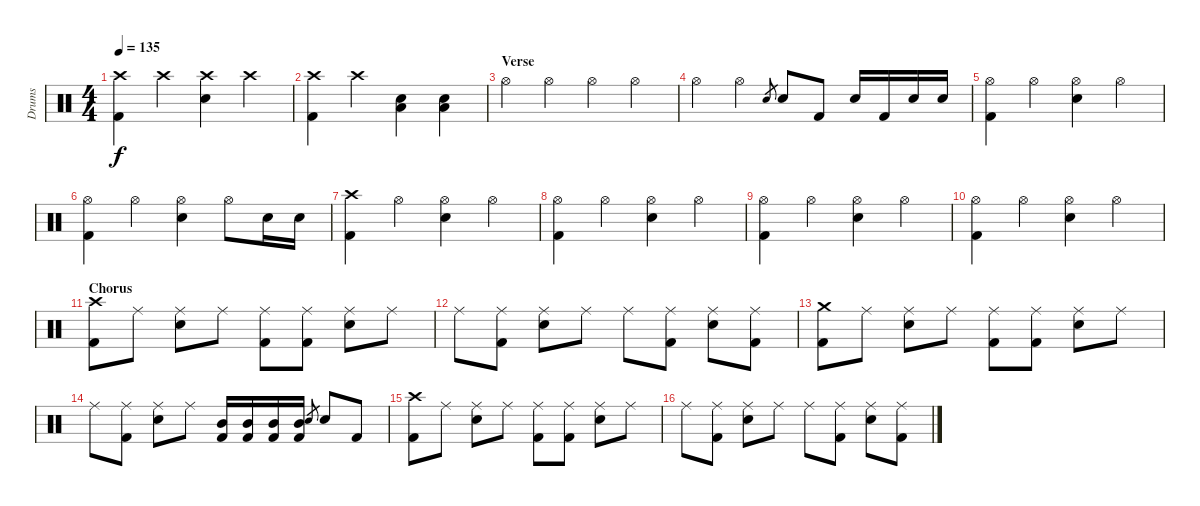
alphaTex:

\track ("Drums" "Drums") {instrument percussion}
\staff {score}
\articulation defaults
\ts (4 4)
\tempo 135
\clef neutral
\ks c
("Crash high (hit)" "Kick (hit) 2").4{dy f} "Crash high (hit)".4 ("Crash high (hit)" "Electric Snare (hit)").4 "Crash high (hit)".4 |
("Crash high (hit)" "Kick (hit) 2").4 "Crash high (hit)".4 ("Electric Snare (hit)" "Low Floor Tom (hit)").4 ("Electric Snare (hit)" "Low Floor Tom (hit)").4 |
\section ("" "Verse")
"Hi-Hat (open)".4 "Hi-Hat (open)".4 "Hi-Hat (open)".4 "Hi-Hat (open)".4 |
"Hi-Hat (open)".4 "Hi-Hat (open)".4 "Electric Snare (hit)".8{gr} "Electric Snare (hit)".8 "Kick (hit) 2".8 "Electric Snare (hit)".16 "Kick (hit) 2".16 "Electric Snare (hit)".16 "Electric Snare (hit)".16 |
("Hi-Hat (open)" "Kick (hit) 2").4 "Hi-Hat (open)".4 ("Hi-Hat (open)" "Electric Snare (hit)").4 "Hi-Hat (open)".4 |
("Hi-Hat (open)" "Kick (hit) 2").4 "Hi-Hat (open)".4 ("Hi-Hat (open)" "Electric Snare (hit)").4 "Hi-Hat (open)".8 "Electric Snare (hit)".16 "Electric Snare (hit)".16 |
("Crash high (hit)" "Kick (hit) 2").4 "Hi-Hat (open)".4 ("Hi-Hat (open)" "Electric Snare (hit)").4 "Hi-Hat (open)".4 |
("Hi-Hat (open)" "Kick (hit) 2").4 "Hi-Hat (open)".4 ("Hi-Hat (open)" "Electric Snare (hit)").4 "Hi-Hat (open)".4 |
("Hi-Hat (open)" "Kick (hit) 2").4 "Hi-Hat (open)".4 ("Hi-Hat (open)" "Electric Snare (hit)").4 "Hi-Hat (open)".4 |
("Hi-Hat (open)" "Kick (hit) 2").4 "Hi-Hat (open)".4 ("Hi-Hat (open)" "Electric Snare (hit)").4 "Hi-Hat (open)".4 |
\section ("" "Chorus")
("Crash high (hit)" "Kick (hit) 2").8 "Ride (middle)".8 ("Ride (middle)" "Electric Snare (hit)").8 "Ride (middle)".8 ("Ride (middle)" "Kick (hit) 2").8 ("Ride (middle)" "Kick (hit) 2").8 ("Ride (middle)" "Electric Snare (hit)").8 "Ride (middle)".8 |
"Ride (middle)".8 ("Ride (middle)" "Kick (hit) 2").8 ("Ride (middle)" "Electric Snare (hit)").8 "Ride (middle)".8 "Ride (middle)".8 ("Ride (middle)" "Kick (hit) 2").8 ("Ride (middle)" "Electric Snare (hit)").8 ("Ride (middle)" "Kick (hit) 2").8 |
("Crash medium (hit)" "Kick (hit) 2").8 "Ride (middle)".8 ("Ride (middle)" "Electric Snare (hit)").8 "Ride (middle)".8 ("Ride (middle)" "Kick (hit) 2").8 ("Ride (middle)" "Kick (hit) 2").8 ("Ride (middle)" "Electric Snare (hit)").8 "Ride (middle)".8 |
"Ride (middle)".8 ("Ride (middle)" "Kick (hit) 2").8 ("Ride (middle)" "Electric Snare (hit)").8 "Ride (middle)".8 ("Mid Tom (hit)" "Kick (hit) 2").16 ("Mid Tom (hit)" "Kick (hit) 2").16 ("Mid Tom (hit)" "Kick (hit) 2").16 ("Mid Tom (hit)" "Kick (hit) 2").16 "Electric Snare (hit)".8{gr} "Electric Snare (hit)".8 "Kick (hit) 2".8 |
("Crash high (hit)" "Kick (hit) 2").8 "Ride (middle)".8 ("Ride (middle)" "Electric Snare (hit)").8 "Ride (middle)".8 ("Ride (middle)" "Kick (hit) 2").8 ("Ride (middle)" "Kick (hit) 2").8 ("Ride (middle)" "Electric Snare (hit)").8 "Ride (middle)".8 |
"Ride (middle)".8 ("Ride (middle)" "Kick (hit) 2").8 ("Ride (middle)" "Electric Snare (hit)").8 "Ride (middle)".8 "Ride (middle)".8 ("Ride (middle)" "Kick (hit) 2").8 ("Ride (middle)" "Electric Snare (hit)").8 ("Ride (middle)" "Kick (hit) 2").8
